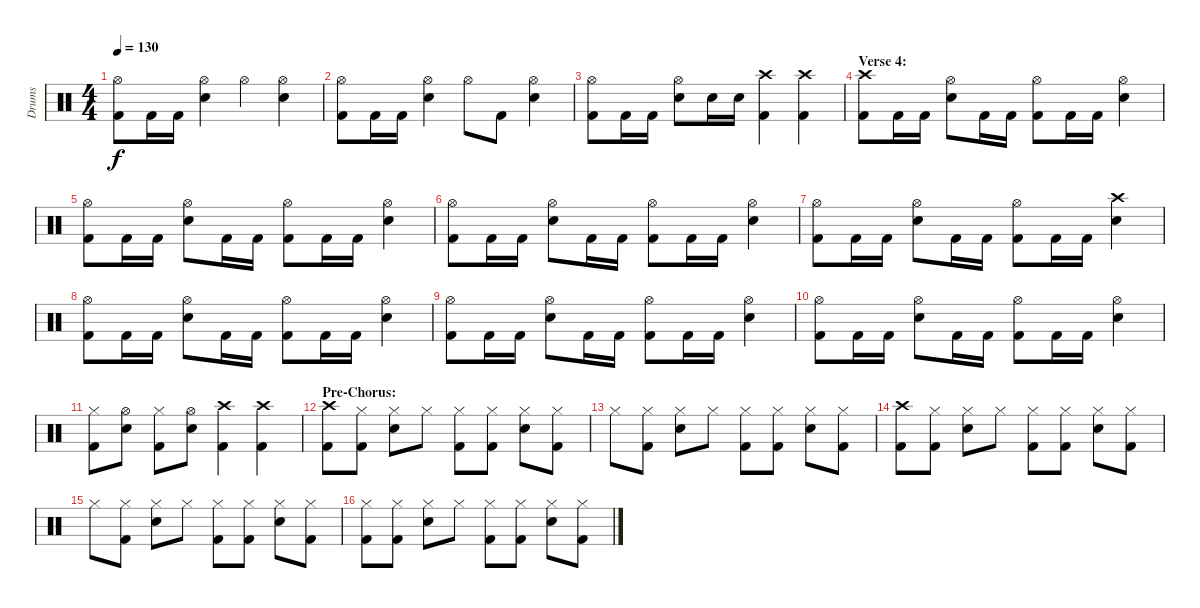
\track ("Drums" "Drums") {instrument percussion}
\staff {score}
\articulation defaults
\ts (4 4)
\tempo 130
\clef neutral
\ks c
("Hi-Hat (open)" "Kick (hit) 2").8{dy f} "Kick (hit) 2".16 "Kick (hit) 2".16 ("Hi-Hat (open)" "Electric Snare (hit)").4 "Hi-Hat (open)".4 ("Hi-Hat (open)" "Electric Snare (hit)").4 |
("Hi-Hat (open)" "Kick (hit) 2").8 "Kick (hit) 2".16 "Kick (hit) 2".16 ("Hi-Hat (open)" "Electric Snare (hit)").4 "Hi-Hat (open)".8 "Kick (hit) 2".8 ("Hi-Hat (open)" "Electric Snare (hit)").4 |
("Hi-Hat (open)" "Kick (hit) 2").8 "Kick (hit) 2".16 "Kick (hit) 2".16 ("Hi-Hat (open)" "Electric Snare (hit)").8 "Electric Snare (hit)".16 "Electric Snare (hit)".16 ("Crash high (hit)" "Kick (hit) 2").4 ("Crash high (hit)" "Kick (hit) 2").4 |
\section ("" "Verse 4:")
("Crash high (hit)" "Kick (hit) 2").8 "Kick (hit) 2".16 "Kick (hit) 2".16 ("Hi-Hat (open)" "Electric Snare (hit)").8 "Kick (hit) 2".16 "Kick (hit) 2".16 ("Hi-Hat (open)" "Kick (hit) 2").8 "Kick (hit) 2".16 "Kick (hit) 2".16 ("Hi-Hat (open)" "Electric Snare (hit)").4 |
("Hi-Hat (open)" "Kick (hit) 2").8 "Kick (hit) 2".16 "Kick (hit) 2".16 ("Hi-Hat (open)" "Electric Snare (hit)").8 "Kick (hit) 2".16 "Kick (hit) 2".16 ("Hi-Hat (open)" "Kick (hit) 2").8 "Kick (hit) 2".16 "Kick (hit) 2".16 ("Hi-Hat (open)" "Electric Snare (hit)").4 |
("Hi-Hat (open)" "Kick (hit) 2").8 "Kick (hit) 2".16 "Kick (hit) 2".16 ("Hi-Hat (open)" "Electric Snare (hit)").8 "Kick (hit) 2".16 "Kick (hit) 2".16 ("Hi-Hat (open)" "Kick (hit) 2").8 "Kick (hit) 2".16 "Kick (hit) 2".16 ("Hi-Hat (open)" "Electric Snare (hit)").4 |
("Hi-Hat (open)" "Kick (hit) 2").8 "Kick (hit) 2".16 "Kick (hit) 2".16 ("Hi-Hat (open)" "Electric Snare (hit)").8 "Kick (hit) 2".16 "Kick (hit) 2".16 ("Hi-Hat (open)" "Kick (hit) 2").8 "Kick (hit) 2".16 "Kick (hit) 2".16 ("Crash high (hit)" "Electric Snare (hit)").4 |
("Hi-Hat (open)" "Kick (hit) 2").8 "Kick (hit) 2".16 "Kick (hit) 2".16 ("Hi-Hat (open)" "Electric Snare (hit)").8 "Kick (hit) 2".16 "Kick (hit) 2".16 ("Hi-Hat (open)" "Kick (hit) 2").8 "Kick (hit) 2".16 "Kick (hit) 2".16 ("Hi-Hat (open)" "Electric Snare (hit)").4 |
("Hi-Hat (open)" "Kick (hit) 2").8 "Kick (hit) 2".16 "Kick (hit) 2".16 ("Hi-Hat (open)" "Electric Snare (hit)").8 "Kick (hit) 2".16 "Kick (hit) 2".16 ("Hi-Hat (open)" "Kick (hit) 2").8 "Kick (hit) 2".16 "Kick (hit) 2".16 ("Hi-Hat (open)" "Electric Snare (hit)").4 |
("Hi-Hat (open)" "Kick (hit) 2").8 "Kick (hit) 2".16 "Kick (hit) 2".16 ("Hi-Hat (open)" "Electric Snare (hit)").8 "Kick (hit) 2".16 "Kick (hit) 2".16 ("Hi-Hat (open)" "Kick (hit) 2").8 "Kick (hit) 2".16 "Kick (hit) 2".16 ("Hi-Hat (open)" "Electric Snare (hit)").4 |
("Hi-Hat (closed)" "Kick (hit) 2").8 ("Hi-Hat (open)" "Electric Snare (hit)").8 ("Hi-Hat (closed)" "Kick (hit) 2").8 ("Hi-Hat (open)" "Electric Snare (hit)").8 ("Crash high (hit)" "Kick (hit) 2").4 ("Crash high (hit)" "Kick (hit) 2").4 |
\section ("" "Pre-Chorus:")
("Crash high (hit)" "Kick (hit) 2").8 ("Hi-Hat (closed)" "Kick (hit) 2").8 ("Hi-Hat (closed)" "Electric Snare (hit)").8 "Hi-Hat (closed)".8 ("Hi-Hat (closed)" "Kick (hit) 2").8 ("Hi-Hat (closed)" "Kick (hit) 2").8 ("Hi-Hat (closed)" "Electric Snare (hit)").8 ("Hi-Hat (closed)" "Kick (hit) 2").8 |
"Hi-Hat (closed)".8 ("Hi-Hat (closed)" "Kick (hit) 2").8 ("Hi-Hat (closed)" "Electric Snare (hit)").8 "Hi-Hat (closed)".8 ("Hi-Hat (closed)" "Kick (hit) 2").8 ("Hi-Hat (closed)" "Kick (hit) 2").8 ("Hi-Hat (closed)" "Electric Snare (hit)").8 ("Hi-Hat (closed)" "Kick (hit) 2").8 |
("Crash high (hit)" "Kick (hit) 2").8 ("Hi-Hat (closed)" "Kick (hit) 2").8 ("Hi-Hat (closed)" "Electric Snare (hit)").8 "Hi-Hat (closed)".8 ("Hi-Hat (closed)" "Kick (hit) 2").8 ("Hi-Hat (closed)" "Kick (hit) 2").8 ("Hi-Hat (closed)" "Electric Snare (hit)").8 ("Hi-Hat (closed)" "Kick (hit) 2").8 |
"Hi-Hat (closed)".8 ("Hi-Hat (closed)" "Kick (hit) 2").8 ("Hi-Hat (closed)" "Electric Snare (hit)").8 "Hi-Hat (closed)".8 ("Hi-Hat (closed)" "Kick (hit) 2").8 ("Hi-Hat (closed)" "Kick (hit) 2").8 ("Hi-Hat (closed)" "Electric Snare (hit)").8 ("Hi-Hat (closed)" "Kick (hit) 2").8 |
("Hi-Hat (closed)" "Kick (hit) 2").8 ("Hi-Hat (closed)" "Kick (hit) 2").8 ("Hi-Hat (closed)" "Electric Snare (hit)").8 "Hi-Hat (closed)".8 ("Hi-Hat (closed)" "Kick (hit) 2").8 ("Hi-Hat (closed)" "Kick (hit) 2").8 ("Hi-Hat (closed)" "Electric Snare (hit)").8 ("Hi-Hat (closed)" "Kick (hit) 2").8
